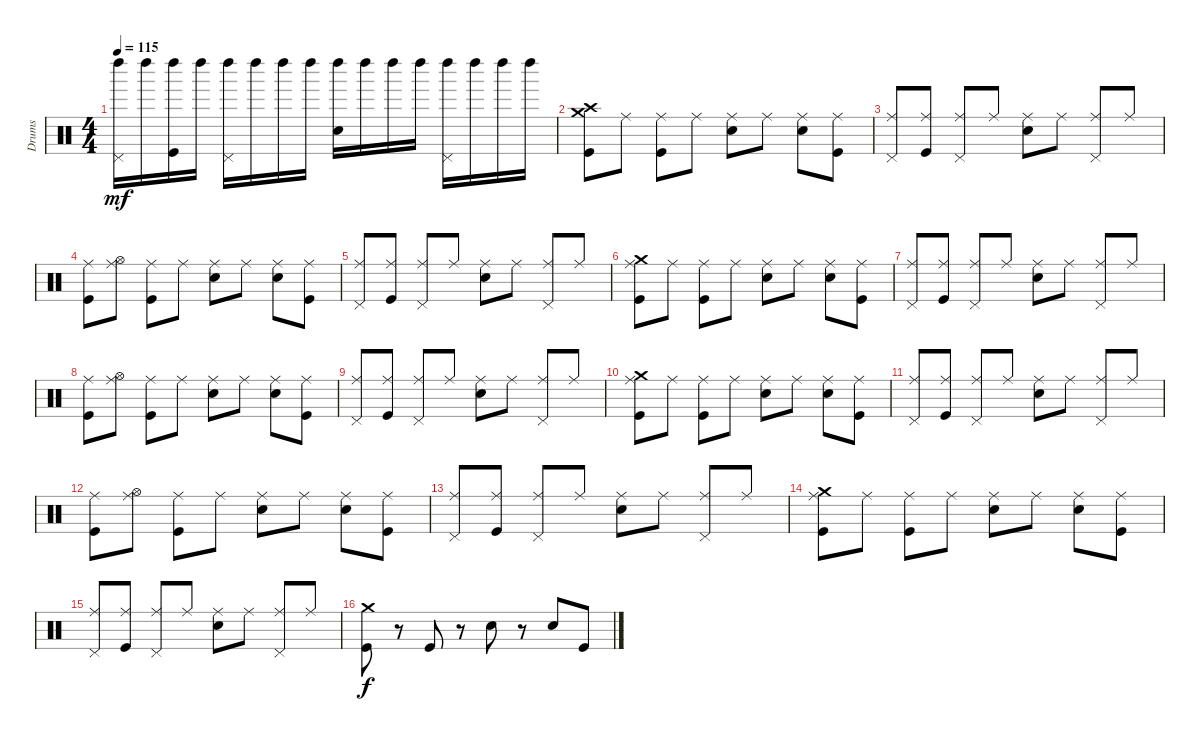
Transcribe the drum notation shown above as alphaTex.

\track ("Drums" "Drums") {instrument percussion}
\staff {score}
\articulation defaults
\ts (4 4)
\tempo 115
\clef neutral
\ks c
("Left Maraca (hit)" "Pedal Hi-Hat (hit)").16{dy mf} "Left Maraca (hit)".16 ("Left Maraca (hit)" "Kick (hit)").16 "Left Maraca (hit)".16 ("Left Maraca (hit)" "Pedal Hi-Hat (hit)").16 "Left Maraca (hit)".16 "Left Maraca (hit)".16 "Left Maraca (hit)".16 ("Left Maraca (hit)" "Snare (hit) 2").16 "Left Maraca (hit)".16 "Left Maraca (hit)".16 "Left Maraca (hit)".16 ("Left Maraca (hit)" "Pedal Hi-Hat (hit)").16 "Left Maraca (hit)".16 "Left Maraca (hit)".16 "Left Maraca (hit)".16 |
("Crash high (hit)" "Crash medium (hit)" "Kick (hit)").8 "Ride (middle)".8 ("Ride (middle)" "Kick (hit)").8 "Ride (middle)".8 ("Ride (middle)" "Snare (hit) 2").8 "Ride (middle)".8 ("Ride (middle)" "Snare (hit) 2").8 ("Ride (middle)" "Kick (hit)").8 |
("Ride (middle)" "Pedal Hi-Hat (hit)").8 ("Ride (middle)" "Kick (hit)").8 ("Ride (middle)" "Pedal Hi-Hat (hit)").8 "Ride (middle)".8 ("Ride (middle)" "Snare (hit) 2").8 "Ride (middle)".8 ("Ride (middle)" "Pedal Hi-Hat (hit)").8 "Ride (middle)".8 |
("Ride (middle)" "Kick (hit)").8 ("Ride (middle)" "Hi-Hat (open)").8 ("Ride (middle)" "Kick (hit)").8 "Ride (middle)".8 ("Ride (middle)" "Snare (hit) 2").8 "Ride (middle)".8 ("Ride (middle)" "Snare (hit) 2").8 ("Ride (middle)" "Kick (hit)").8 |
("Ride (middle)" "Pedal Hi-Hat (hit)").8 ("Ride (middle)" "Kick (hit)").8 ("Ride (middle)" "Pedal Hi-Hat (hit)").8 "Ride (middle)".8 ("Ride (middle)" "Snare (hit) 2").8 "Ride (middle)".8 ("Ride (middle)" "Pedal Hi-Hat (hit)").8 "Ride (middle)".8 |
("Ride (middle)" "Crash medium (hit)" "Kick (hit)").8 "Ride (middle)".8 ("Ride (middle)" "Kick (hit)").8 "Ride (middle)".8 ("Ride (middle)" "Snare (hit) 2").8 "Ride (middle)".8 ("Ride (middle)" "Snare (hit) 2").8 ("Ride (middle)" "Kick (hit)").8 |
("Ride (middle)" "Pedal Hi-Hat (hit)").8 ("Ride (middle)" "Kick (hit)").8 ("Ride (middle)" "Pedal Hi-Hat (hit)").8 "Ride (middle)".8 ("Ride (middle)" "Snare (hit) 2").8 "Ride (middle)".8 ("Ride (middle)" "Pedal Hi-Hat (hit)").8 "Ride (middle)".8 |
("Ride (middle)" "Kick (hit)").8 ("Ride (middle)" "Hi-Hat (open)").8 ("Ride (middle)" "Kick (hit)").8 "Ride (middle)".8 ("Ride (middle)" "Snare (hit) 2").8 "Ride (middle)".8 ("Ride (middle)" "Snare (hit) 2").8 ("Ride (middle)" "Kick (hit)").8 |
("Ride (middle)" "Pedal Hi-Hat (hit)").8 ("Ride (middle)" "Kick (hit)").8 ("Ride (middle)" "Pedal Hi-Hat (hit)").8 "Ride (middle)".8 ("Ride (middle)" "Snare (hit) 2").8 "Ride (middle)".8 ("Ride (middle)" "Pedal Hi-Hat (hit)").8 "Ride (middle)".8 |
("Ride (middle)" "Crash medium (hit)" "Kick (hit)").8 "Ride (middle)".8 ("Ride (middle)" "Kick (hit)").8 "Ride (middle)".8 ("Ride (middle)" "Snare (hit) 2").8 "Ride (middle)".8 ("Ride (middle)" "Snare (hit) 2").8 ("Ride (middle)" "Kick (hit)").8 |
("Ride (middle)" "Pedal Hi-Hat (hit)").8 ("Ride (middle)" "Kick (hit)").8 ("Ride (middle)" "Pedal Hi-Hat (hit)").8 "Ride (middle)".8 ("Ride (middle)" "Snare (hit) 2").8 "Ride (middle)".8 ("Ride (middle)" "Pedal Hi-Hat (hit)").8 "Ride (middle)".8 |
("Ride (middle)" "Kick (hit)").8 ("Ride (middle)" "Hi-Hat (open)").8 ("Ride (middle)" "Kick (hit)").8 "Ride (middle)".8 ("Ride (middle)" "Snare (hit) 2").8 "Ride (middle)".8 ("Ride (middle)" "Snare (hit) 2").8 ("Ride (middle)" "Kick (hit)").8 |
("Ride (middle)" "Pedal Hi-Hat (hit)").8 ("Ride (middle)" "Kick (hit)").8 ("Ride (middle)" "Pedal Hi-Hat (hit)").8 "Ride (middle)".8 ("Ride (middle)" "Snare (hit) 2").8 "Ride (middle)".8 ("Ride (middle)" "Pedal Hi-Hat (hit)").8 "Ride (middle)".8 |
("Ride (middle)" "Crash medium (hit)" "Kick (hit)").8 "Ride (middle)".8 ("Ride (middle)" "Kick (hit)").8 "Ride (middle)".8 ("Ride (middle)" "Snare (hit) 2").8 "Ride (middle)".8 ("Ride (middle)" "Snare (hit) 2").8 ("Ride (middle)" "Kick (hit)").8 |
("Ride (middle)" "Pedal Hi-Hat (hit)").8 ("Ride (middle)" "Kick (hit)").8 ("Ride (middle)" "Pedal Hi-Hat (hit)").8 "Ride (middle)".8 ("Ride (middle)" "Snare (hit) 2").8 "Ride (middle)".8 ("Ride (middle)" "Pedal Hi-Hat (hit)").8 "Ride (middle)".8 |
("Crash medium (hit)" "Kick (hit)").8{dy f} r.8 "Kick (hit)".8 r.8 "Snare (hit) 2".8 r.8 "Snare (hit) 2".8 "Kick (hit)".8
